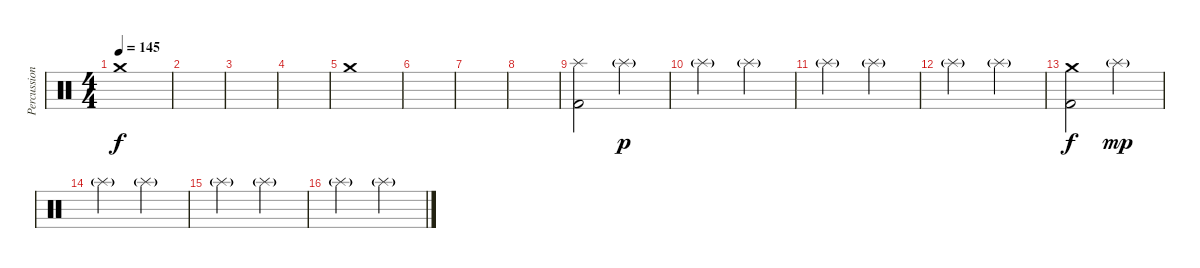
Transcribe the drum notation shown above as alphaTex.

\track ("Percussion" "Percussion") {instrument percussion}
\staff {score}
\articulation defaults
\ts (4 4)
\tempo 145
\clef neutral
\ks c "Crash medium (hit)".1{dy f}
|
|
|
|
"Crash medium (hit)".1 |
|
|
|
("Splash (hit)" "Kick (hit) 2").2 "Splash (hit)"{g}.2{dy p} |
"Splash (hit)"{g}.2 "Splash (hit)"{g}.2 |
"Splash (hit)"{g}.2 "Splash (hit)"{g}.2 |
"Splash (hit)"{g}.2 "Splash (hit)"{g}.2 |
("Crash medium (hit)" "Kick (hit) 2").2{dy f} "Splash (hit)"{g}.2{dy mp} |
"Splash (hit)"{g}.2 "Splash (hit)"{g}.2 |
"Splash (hit)"{g}.2 "Splash (hit)"{g}.2 |
"Splash (hit)"{g}.2 "Splash (hit)"{g}.2
